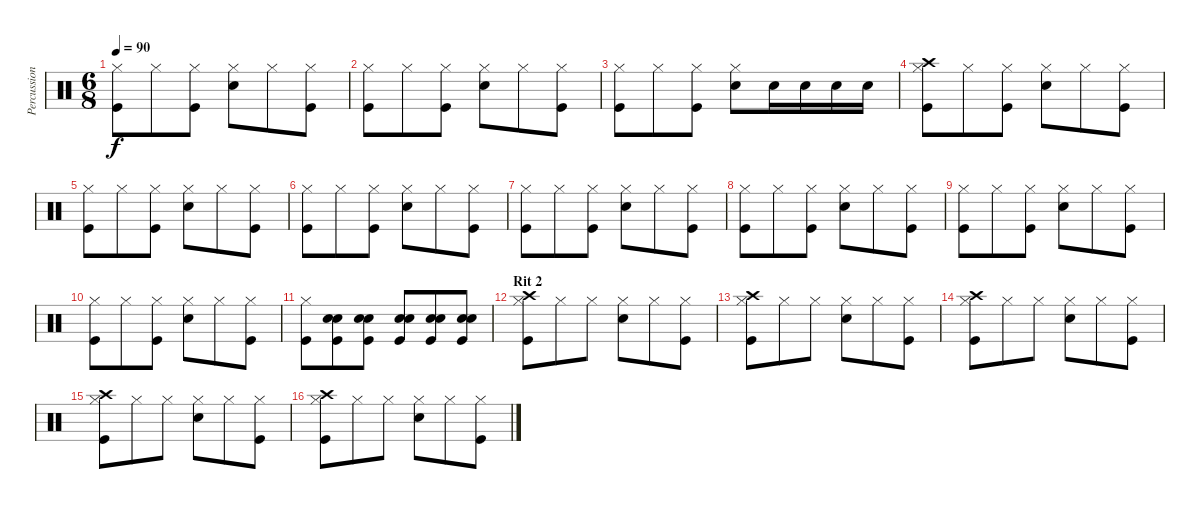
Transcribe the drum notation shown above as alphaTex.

\track ("Percussioni" "Percussion") {instrument percussion}
\staff {score}
\articulation defaults
\ts (6 8)
\tempo 90
\clef neutral
\ks c
("Hi-Hat (closed)" "Kick (hit)").8{dy f} "Hi-Hat (closed)".8 ("Hi-Hat (closed)" "Kick (hit)").8 ("Hi-Hat (closed)" "Snare (hit) 2").8 "Hi-Hat (closed)".8 ("Hi-Hat (closed)" "Kick (hit)").8 |
("Hi-Hat (closed)" "Kick (hit)").8 "Hi-Hat (closed)".8 ("Hi-Hat (closed)" "Kick (hit)").8 ("Hi-Hat (closed)" "Snare (hit) 2").8 "Hi-Hat (closed)".8 ("Hi-Hat (closed)" "Kick (hit)").8 |
("Hi-Hat (closed)" "Kick (hit)").8 "Hi-Hat (closed)".8 ("Hi-Hat (closed)" "Kick (hit)").8 ("Hi-Hat (closed)" "Snare (hit) 2").8 "Snare (hit) 2".16 "Snare (hit) 2".16 "Snare (hit) 2".16 "Snare (hit) 2".16 |
("Crash high (hit)" "Hi-Hat (closed)" "Kick (hit)").8 "Hi-Hat (closed)".8 ("Hi-Hat (closed)" "Kick (hit)").8 ("Hi-Hat (closed)" "Snare (hit) 2").8 "Hi-Hat (closed)".8 ("Hi-Hat (closed)" "Kick (hit)").8 |
("Hi-Hat (closed)" "Kick (hit)").8 "Hi-Hat (closed)".8 ("Hi-Hat (closed)" "Kick (hit)").8 ("Hi-Hat (closed)" "Snare (hit) 2").8 "Hi-Hat (closed)".8 ("Hi-Hat (closed)" "Kick (hit)").8 |
("Hi-Hat (closed)" "Kick (hit)").8 "Hi-Hat (closed)".8 ("Hi-Hat (closed)" "Kick (hit)").8 ("Hi-Hat (closed)" "Snare (hit) 2").8 "Hi-Hat (closed)".8 ("Hi-Hat (closed)" "Kick (hit)").8 |
("Hi-Hat (closed)" "Kick (hit)").8 "Hi-Hat (closed)".8 ("Hi-Hat (closed)" "Kick (hit)").8 ("Hi-Hat (closed)" "Snare (hit) 2").8 "Hi-Hat (closed)".8 ("Hi-Hat (closed)" "Kick (hit)").8 |
("Hi-Hat (closed)" "Kick (hit)").8 "Hi-Hat (closed)".8 ("Hi-Hat (closed)" "Kick (hit)").8 ("Hi-Hat (closed)" "Snare (hit) 2").8 "Hi-Hat (closed)".8 ("Hi-Hat (closed)" "Kick (hit)").8 |
("Hi-Hat (closed)" "Kick (hit)").8 "Hi-Hat (closed)".8 ("Hi-Hat (closed)" "Kick (hit)").8 ("Hi-Hat (closed)" "Snare (hit) 2").8 "Hi-Hat (closed)".8 ("Hi-Hat (closed)" "Kick (hit)").8 |
("Hi-Hat (closed)" "Kick (hit)").8 "Hi-Hat (closed)".8 ("Hi-Hat (closed)" "Kick (hit)").8 ("Hi-Hat (closed)" "Snare (hit) 2").8 "Hi-Hat (closed)".8 ("Hi-Hat (closed)" "Kick (hit)").8 |
("Hi-Hat (closed)" "Kick (hit)").8 ("Snare (hit) 2" "Snare (hit) 2" "Kick (hit)").8 ("Snare (hit) 2" "Snare (hit) 2" "Kick (hit)").8 ("Snare (hit) 2" "Snare (hit) 2" "Kick (hit)").8 ("Snare (hit) 2" "Snare (hit) 2" "Kick (hit)").8 ("Snare (hit) 2" "Snare (hit) 2" "Kick (hit)").8 |
\section ("" "Rit 2")
("Crash high (hit)" "Hi-Hat (closed)" "Kick (hit)").8 "Hi-Hat (closed)".8 "Hi-Hat (closed)".8 ("Hi-Hat (closed)" "Snare (hit) 2").8 "Hi-Hat (closed)".8 ("Hi-Hat (closed)" "Kick (hit)").8 |
("Crash high (hit)" "Hi-Hat (closed)" "Kick (hit)").8 "Hi-Hat (closed)".8 "Hi-Hat (closed)".8 ("Hi-Hat (closed)" "Snare (hit) 2").8 "Hi-Hat (closed)".8 ("Hi-Hat (closed)" "Kick (hit)").8 |
("Crash high (hit)" "Hi-Hat (closed)" "Kick (hit)").8 "Hi-Hat (closed)".8 "Hi-Hat (closed)".8 ("Hi-Hat (closed)" "Snare (hit) 2").8 "Hi-Hat (closed)".8 ("Hi-Hat (closed)" "Kick (hit)").8 |
("Crash high (hit)" "Hi-Hat (closed)" "Kick (hit)").8 "Hi-Hat (closed)".8 "Hi-Hat (closed)".8 ("Hi-Hat (closed)" "Snare (hit) 2").8 "Hi-Hat (closed)".8 ("Hi-Hat (closed)" "Kick (hit)").8 |
("Crash high (hit)" "Hi-Hat (closed)" "Kick (hit)").8 "Hi-Hat (closed)".8 "Hi-Hat (closed)".8 ("Hi-Hat (closed)" "Snare (hit) 2").8 "Hi-Hat (closed)".8 ("Hi-Hat (closed)" "Kick (hit)").8
